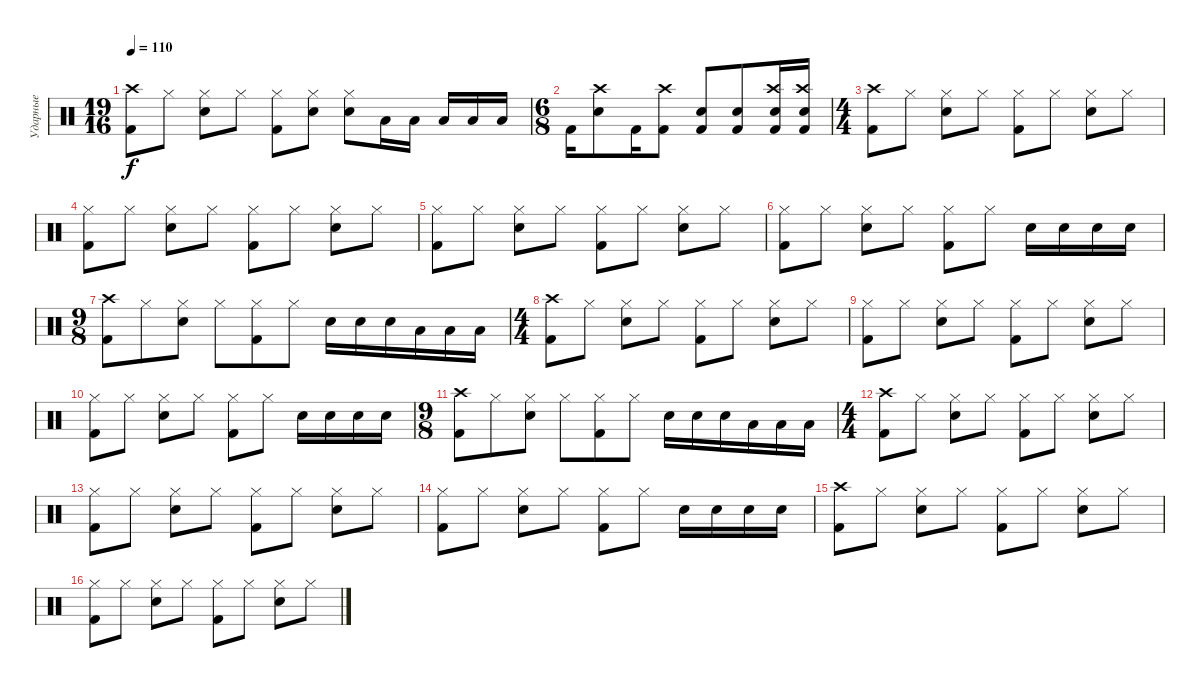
\track ("Ударные" "Ударные") {instrument percussion}
\staff {score}
\articulation defaults
\ts (19 16)
\tempo 110
\clef neutral
\ks c
("Kick (hit) 2" "Crash high (hit)").8{dy f} "Hi-Hat (closed)".8 ("Hi-Hat (closed)" "Electric Snare (hit)").8 "Hi-Hat (closed)".8 ("Hi-Hat (closed)" "Kick (hit) 2").8 ("Hi-Hat (closed)" "Electric Snare (hit)").8 ("Hi-Hat (closed)" "Electric Snare (hit)").8 "Low Tom (hit)".16 "Low Tom (hit)".16 "Low Tom (hit)".16 "Low Tom (hit)".16 "Low Tom (hit)".16 |
\ts (6 8)
"Kick (hit) 2".16 ("Electric Snare (hit)" "Crash high (hit)").8 "Kick (hit) 2".16 ("Kick (hit) 2" "Crash high (hit)").8 ("Electric Snare (hit)" "Kick (hit) 2").8 ("Electric Snare (hit)" "Kick (hit) 2").8 ("Crash high (hit)" "Kick (hit) 2" "Electric Snare (hit)").16 ("Crash high (hit)" "Kick (hit) 2" "Electric Snare (hit)").16 |
\ts (4 4)
("Crash high (hit)" "Kick (hit) 2").8 "Hi-Hat (closed)".8 ("Electric Snare (hit)" "Hi-Hat (closed)").8 "Hi-Hat (closed)".8 ("Kick (hit) 2" "Hi-Hat (closed)").8 "Hi-Hat (closed)".8 ("Electric Snare (hit)" "Hi-Hat (closed)").8 "Hi-Hat (closed)".8 |
("Hi-Hat (closed)" "Kick (hit) 2").8 "Hi-Hat (closed)".8 ("Electric Snare (hit)" "Hi-Hat (closed)").8 "Hi-Hat (closed)".8 ("Kick (hit) 2" "Hi-Hat (closed)").8 "Hi-Hat (closed)".8 ("Electric Snare (hit)" "Hi-Hat (closed)").8 "Hi-Hat (closed)".8 |
("Hi-Hat (closed)" "Kick (hit) 2").8 "Hi-Hat (closed)".8 ("Electric Snare (hit)" "Hi-Hat (closed)").8 "Hi-Hat (closed)".8 ("Kick (hit) 2" "Hi-Hat (closed)").8 "Hi-Hat (closed)".8 ("Electric Snare (hit)" "Hi-Hat (closed)").8 "Hi-Hat (closed)".8 |
("Hi-Hat (closed)" "Kick (hit) 2").8 "Hi-Hat (closed)".8 ("Electric Snare (hit)" "Hi-Hat (closed)").8 "Hi-Hat (closed)".8 ("Kick (hit) 2" "Hi-Hat (closed)").8 "Hi-Hat (closed)".8 "Electric Snare (hit)".16 "Electric Snare (hit)".16 "Electric Snare (hit)".16 "Electric Snare (hit)".16 |
\ts (9 8)
("Crash high (hit)" "Kick (hit) 2").8 "Hi-Hat (closed)".8 ("Electric Snare (hit)" "Hi-Hat (closed)").8 "Hi-Hat (closed)".8 ("Kick (hit) 2" "Hi-Hat (closed)").8 "Hi-Hat (closed)".8 "Electric Snare (hit)".16 "Electric Snare (hit)".16 "Electric Snare (hit)".16 "Low Tom (hit)".16 "Low Tom (hit)".16 "Low Tom (hit)".16 |
\ts (4 4)
("Crash high (hit)" "Kick (hit) 2").8 "Hi-Hat (closed)".8 ("Electric Snare (hit)" "Hi-Hat (closed)").8 "Hi-Hat (closed)".8 ("Kick (hit) 2" "Hi-Hat (closed)").8 "Hi-Hat (closed)".8 ("Electric Snare (hit)" "Hi-Hat (closed)").8 "Hi-Hat (closed)".8 |
("Hi-Hat (closed)" "Kick (hit) 2").8 "Hi-Hat (closed)".8 ("Electric Snare (hit)" "Hi-Hat (closed)").8 "Hi-Hat (closed)".8 ("Kick (hit) 2" "Hi-Hat (closed)").8 "Hi-Hat (closed)".8 ("Electric Snare (hit)" "Hi-Hat (closed)").8 "Hi-Hat (closed)".8 |
("Hi-Hat (closed)" "Kick (hit) 2").8 "Hi-Hat (closed)".8 ("Electric Snare (hit)" "Hi-Hat (closed)").8 "Hi-Hat (closed)".8 ("Kick (hit) 2" "Hi-Hat (closed)").8 "Hi-Hat (closed)".8 "Electric Snare (hit)".16 "Electric Snare (hit)".16 "Electric Snare (hit)".16 "Electric Snare (hit)".16 |
\ts (9 8)
("Crash high (hit)" "Kick (hit) 2").8 "Hi-Hat (closed)".8 ("Electric Snare (hit)" "Hi-Hat (closed)").8 "Hi-Hat (closed)".8 ("Kick (hit) 2" "Hi-Hat (closed)").8 "Hi-Hat (closed)".8 "Electric Snare (hit)".16 "Electric Snare (hit)".16 "Electric Snare (hit)".16 "Low Tom (hit)".16 "Low Tom (hit)".16 "Low Tom (hit)".16 |
\ts (4 4)
("Crash high (hit)" "Kick (hit) 2").8 "Hi-Hat (closed)".8 ("Electric Snare (hit)" "Hi-Hat (closed)").8 "Hi-Hat (closed)".8 ("Kick (hit) 2" "Hi-Hat (closed)").8 "Hi-Hat (closed)".8 ("Electric Snare (hit)" "Hi-Hat (closed)").8 "Hi-Hat (closed)".8 |
("Hi-Hat (closed)" "Kick (hit) 2").8 "Hi-Hat (closed)".8 ("Electric Snare (hit)" "Hi-Hat (closed)").8 "Hi-Hat (closed)".8 ("Kick (hit) 2" "Hi-Hat (closed)").8 "Hi-Hat (closed)".8 ("Electric Snare (hit)" "Hi-Hat (closed)").8 "Hi-Hat (closed)".8 |
("Hi-Hat (closed)" "Kick (hit) 2").8 "Hi-Hat (closed)".8 ("Electric Snare (hit)" "Hi-Hat (closed)").8 "Hi-Hat (closed)".8 ("Kick (hit) 2" "Hi-Hat (closed)").8 "Hi-Hat (closed)".8 "Electric Snare (hit)".16 "Electric Snare (hit)".16 "Electric Snare (hit)".16 "Electric Snare (hit)".16 |
("Crash high (hit)" "Kick (hit) 2").8 "Hi-Hat (closed)".8 ("Electric Snare (hit)" "Hi-Hat (closed)").8 "Hi-Hat (closed)".8 ("Kick (hit) 2" "Hi-Hat (closed)").8 "Hi-Hat (closed)".8 ("Electric Snare (hit)" "Hi-Hat (closed)").8 "Hi-Hat (closed)".8 |
("Hi-Hat (closed)" "Kick (hit) 2").8 "Hi-Hat (closed)".8 ("Electric Snare (hit)" "Hi-Hat (closed)").8 "Hi-Hat (closed)".8 ("Kick (hit) 2" "Hi-Hat (closed)").8 "Hi-Hat (closed)".8 ("Electric Snare (hit)" "Hi-Hat (closed)").8 "Hi-Hat (closed)".8
